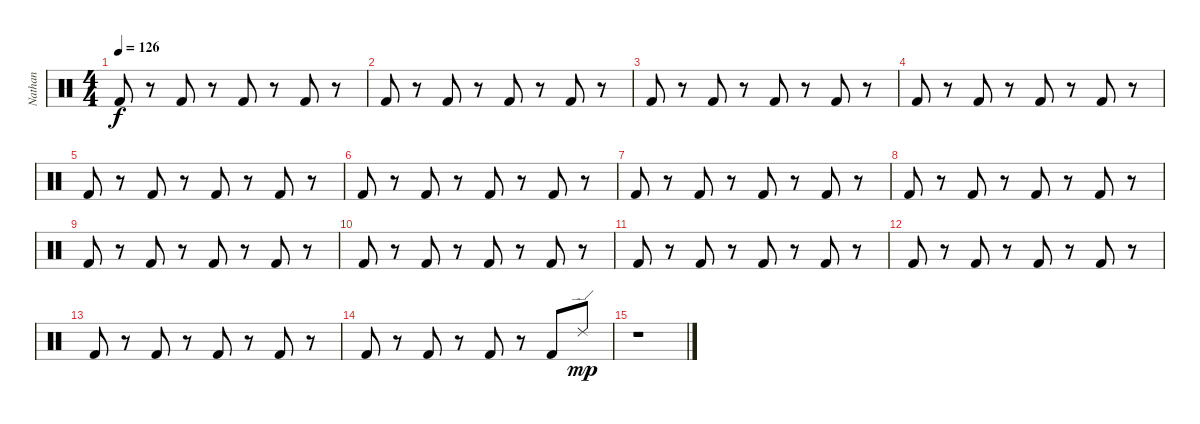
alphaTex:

\track ("Nathan" "Nathan") {instrument percussion}
\staff {score}
\articulation defaults
\ts (4 4)
\tempo 126
\clef neutral
\ks c "Kick (hit) 2".8{dy f}
r.8 "Kick (hit) 2".8 r.8 "Kick (hit) 2".8 r.8 "Kick (hit) 2".8 r.8 |
"Kick (hit) 2".8 r.8 "Kick (hit) 2".8 r.8 "Kick (hit) 2".8 r.8 "Kick (hit) 2".8 r.8 |
"Kick (hit) 2".8 r.8 "Kick (hit) 2".8 r.8 "Kick (hit) 2".8 r.8 "Kick (hit) 2".8 r.8 |
"Kick (hit) 2".8 r.8 "Kick (hit) 2".8 r.8 "Kick (hit) 2".8 r.8 "Kick (hit) 2".8 r.8 |
"Kick (hit) 2".8 r.8 "Kick (hit) 2".8 r.8 "Kick (hit) 2".8 r.8 "Kick (hit) 2".8 r.8 |
"Kick (hit) 2".8 r.8 "Kick (hit) 2".8 r.8 "Kick (hit) 2".8 r.8 "Kick (hit) 2".8 r.8 |
"Kick (hit) 2".8 r.8 "Kick (hit) 2".8 r.8 "Kick (hit) 2".8 r.8 "Kick (hit) 2".8 r.8 |
"Kick (hit) 2".8 r.8 "Kick (hit) 2".8 r.8 "Kick (hit) 2".8 r.8 "Kick (hit) 2".8 r.8 |
"Kick (hit) 2".8 r.8 "Kick (hit) 2".8 r.8 "Kick (hit) 2".8 r.8 "Kick (hit) 2".8 r.8 |
"Kick (hit) 2".8 r.8 "Kick (hit) 2".8 r.8 "Kick (hit) 2".8 r.8 "Kick (hit) 2".8 r.8 |
"Kick (hit) 2".8 r.8 "Kick (hit) 2".8 r.8 "Kick (hit) 2".8 r.8 "Kick (hit) 2".8 r.8 |
"Kick (hit) 2".8 r.8 "Kick (hit) 2".8 r.8 "Kick (hit) 2".8 r.8 "Kick (hit) 2".8 r.8 |
"Kick (hit) 2".8 r.8 "Kick (hit) 2".8 r.8 "Kick (hit) 2".8 r.8 "Kick (hit) 2".8 r.8 |
"Kick (hit) 2".8 r.8 "Kick (hit) 2".8 r.8 "Kick (hit) 2".8 r.8 "Kick (hit) 2".8 "Ride (edge) 2".8{dy mp} |
r.1
